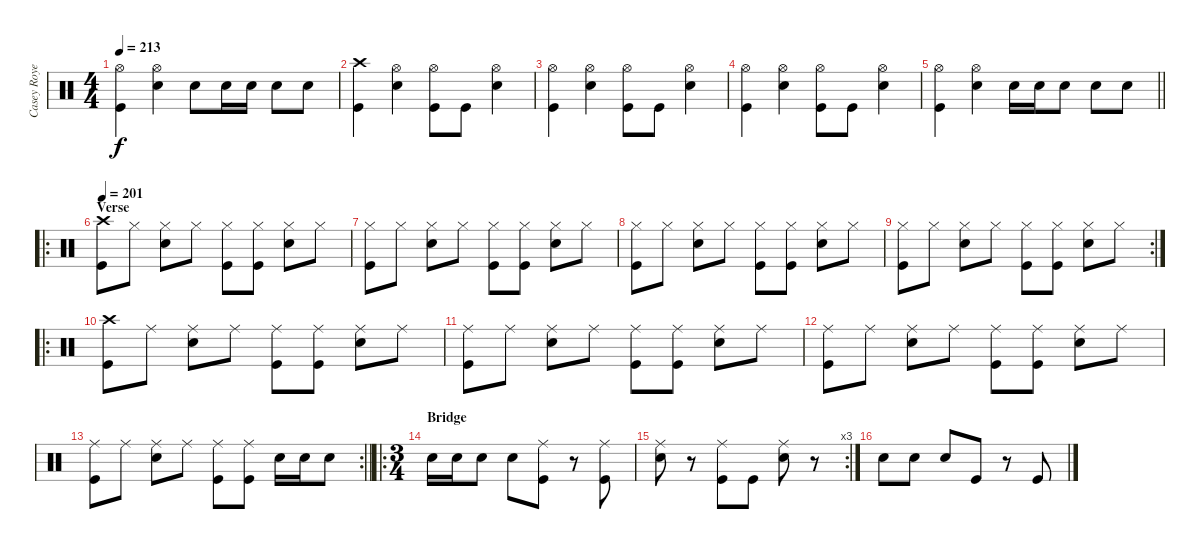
\track ("Casey Royer (Drums)" "Casey Roye") {instrument percussion}
\staff {score}
\articulation defaults
\ts (4 4)
\tempo 213
\clef neutral
\ks c
("Hi-Hat (open)" "Kick (hit)").4{dy f} ("Hi-Hat (open)" "Snare (hit) 2").4 "Snare (hit) 2".8 "Snare (hit) 2".16 "Snare (hit) 2".16 "Snare (hit) 2".8 "Snare (hit) 2".8 |
("Crash high (hit)" "Kick (hit)").4 ("Hi-Hat (open)" "Snare (hit) 2").4 ("Hi-Hat (open)" "Kick (hit)").8 "Kick (hit)".8 ("Hi-Hat (open)" "Snare (hit) 2").4 |
("Hi-Hat (open)" "Kick (hit)").4 ("Hi-Hat (open)" "Snare (hit) 2").4 ("Hi-Hat (open)" "Kick (hit)").8 "Kick (hit)".8 ("Hi-Hat (open)" "Snare (hit) 2").4 |
("Hi-Hat (open)" "Kick (hit)").4 ("Hi-Hat (open)" "Snare (hit) 2").4 ("Hi-Hat (open)" "Kick (hit)").8 "Kick (hit)".8 ("Hi-Hat (open)" "Snare (hit) 2").4 |
\barLineRight lightlight
("Hi-Hat (open)" "Kick (hit)").4 ("Hi-Hat (open)" "Snare (hit) 2").4 "Snare (hit) 2".16 "Snare (hit) 2".16 "Snare (hit) 2".8 "Snare (hit) 2".8 "Snare (hit) 2".8 |
\ro
\section ("" "Verse")
\tempo 202
\tempo 201
("Crash high (hit)" "Kick (hit)").8 "Hi-Hat (closed)".8 ("Hi-Hat (closed)" "Snare (hit) 2").8 "Hi-Hat (closed)".8 ("Hi-Hat (closed)" "Kick (hit)").8 ("Hi-Hat (closed)" "Kick (hit)").8 ("Hi-Hat (closed)" "Snare (hit) 2").8 "Hi-Hat (closed)".8 |
("Hi-Hat (closed)" "Kick (hit)").8 "Hi-Hat (closed)".8 ("Hi-Hat (closed)" "Snare (hit) 2").8 "Hi-Hat (closed)".8 ("Hi-Hat (closed)" "Kick (hit)").8 ("Hi-Hat (closed)" "Kick (hit)").8 ("Hi-Hat (closed)" "Snare (hit) 2").8 "Hi-Hat (closed)".8 |
("Hi-Hat (closed)" "Kick (hit)").8 "Hi-Hat (closed)".8 ("Hi-Hat (closed)" "Snare (hit) 2").8 "Hi-Hat (closed)".8 ("Hi-Hat (closed)" "Kick (hit)").8 ("Hi-Hat (closed)" "Kick (hit)").8 ("Hi-Hat (closed)" "Snare (hit) 2").8 "Hi-Hat (closed)".8 |
\rc 2
("Hi-Hat (closed)" "Kick (hit)").8 "Hi-Hat (closed)".8 ("Hi-Hat (closed)" "Snare (hit) 2").8 "Hi-Hat (closed)".8 ("Hi-Hat (closed)" "Kick (hit)").8 ("Hi-Hat (closed)" "Kick (hit)").8 ("Hi-Hat (closed)" "Snare (hit) 2").8 "Hi-Hat (closed)".8 |
\ro
("Crash high (hit)" "Kick (hit)").8 "Ride (middle)".8 ("Ride (middle)" "Snare (hit) 2").8 "Ride (middle)".8 ("Ride (middle)" "Kick (hit)").8 ("Ride (middle)" "Kick (hit)").8 ("Ride (middle)" "Snare (hit) 2").8 "Ride (middle)".8 |
("Ride (middle)" "Kick (hit)").8 "Ride (middle)".8 ("Ride (middle)" "Snare (hit) 2").8 "Ride (middle)".8 ("Ride (middle)" "Kick (hit)").8 ("Ride (middle)" "Kick (hit)").8 ("Ride (middle)" "Snare (hit) 2").8 "Ride (middle)".8 |
("Ride (middle)" "Kick (hit)").8 "Ride (middle)".8 ("Ride (middle)" "Snare (hit) 2").8 "Ride (middle)".8 ("Ride (middle)" "Kick (hit)").8 ("Ride (middle)" "Kick (hit)").8 ("Ride (middle)" "Snare (hit) 2").8 "Ride (middle)".8 |
\rc 2
\barLineRight lightlight
("Ride (middle)" "Kick (hit)").8 "Ride (middle)".8 ("Ride (middle)" "Snare (hit) 2").8 "Ride (middle)".8 ("Ride (middle)" "Kick (hit)").8 ("Ride (middle)" "Kick (hit)").8 "Snare (hit) 2".16 "Snare (hit) 2".16 "Snare (hit) 2".8 |
\ro
\ts (3 4)
\section ("" "Bridge")
"Snare (hit) 2".16 "Snare (hit) 2".16 "Snare (hit) 2".8 "Snare (hit) 2".8 ("Ride (middle)" "Kick (hit)").8 r.8 ("Ride (middle)" "Kick (hit)").8 |
\rc 3
("Ride (middle)" "Snare (hit) 2").8 r.8 ("Ride (middle)" "Kick (hit)").8 "Kick (hit)".8 ("Ride (middle)" "Snare (hit) 2").8 r.8 |
"Snare (hit) 2".8 "Snare (hit) 2".8 "Snare (hit) 2".8 "Kick (hit)".8 r.8 "Kick (hit)".8
